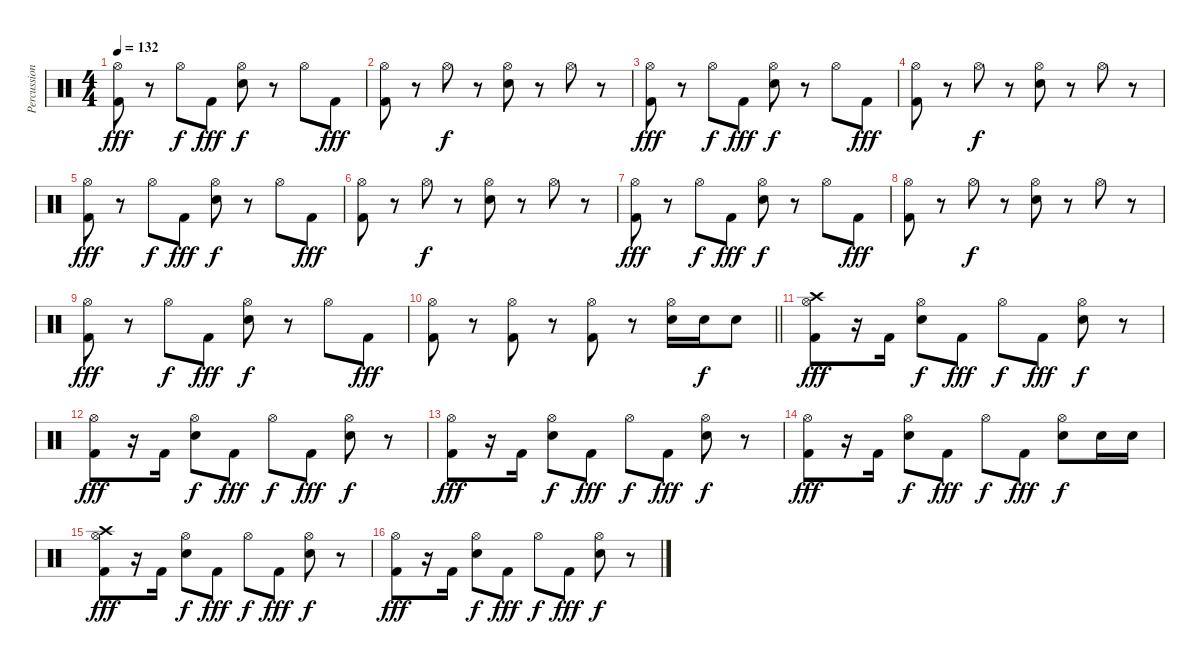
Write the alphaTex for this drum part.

\track ("Percussion" "Percussion") {instrument percussion}
\staff {score}
\articulation defaults
\ts (4 4)
\tempo 132
\clef neutral
\ks c
("Kick (hit) 2" "Hi-Hat (open)").8{dy fff} r.8 "Hi-Hat (open)".8{dy f} "Kick (hit) 2".8{dy fff} ("Electric Snare (hit)" "Hi-Hat (open)").8{dy f} r.8 "Hi-Hat (open)".8 "Kick (hit) 2".8{dy fff} |
("Kick (hit) 2" "Hi-Hat (open)").8 r.8 "Hi-Hat (open)".8{dy f} r.8 ("Electric Snare (hit)" "Hi-Hat (open)").8 r.8 "Hi-Hat (open)".8 r.8 |
("Kick (hit) 2" "Hi-Hat (open)").8{dy fff} r.8 "Hi-Hat (open)".8{dy f} "Kick (hit) 2".8{dy fff} ("Electric Snare (hit)" "Hi-Hat (open)").8{dy f} r.8 "Hi-Hat (open)".8 "Kick (hit) 2".8{dy fff} |
("Kick (hit) 2" "Hi-Hat (open)").8 r.8 "Hi-Hat (open)".8{dy f} r.8 ("Electric Snare (hit)" "Hi-Hat (open)").8 r.8 "Hi-Hat (open)".8 r.8 |
("Kick (hit) 2" "Hi-Hat (open)").8{dy fff} r.8 "Hi-Hat (open)".8{dy f} "Kick (hit) 2".8{dy fff} ("Electric Snare (hit)" "Hi-Hat (open)").8{dy f} r.8 "Hi-Hat (open)".8 "Kick (hit) 2".8{dy fff} |
("Kick (hit) 2" "Hi-Hat (open)").8 r.8 "Hi-Hat (open)".8{dy f} r.8 ("Electric Snare (hit)" "Hi-Hat (open)").8 r.8 "Hi-Hat (open)".8 r.8 |
("Kick (hit) 2" "Hi-Hat (open)").8{dy fff} r.8 "Hi-Hat (open)".8{dy f} "Kick (hit) 2".8{dy fff} ("Electric Snare (hit)" "Hi-Hat (open)").8{dy f} r.8 "Hi-Hat (open)".8 "Kick (hit) 2".8{dy fff} |
("Kick (hit) 2" "Hi-Hat (open)").8 r.8 "Hi-Hat (open)".8{dy f} r.8 ("Electric Snare (hit)" "Hi-Hat (open)").8 r.8 "Hi-Hat (open)".8 r.8 |
("Kick (hit) 2" "Hi-Hat (open)").8{dy fff} r.8 "Hi-Hat (open)".8{dy f} "Kick (hit) 2".8{dy fff} ("Electric Snare (hit)" "Hi-Hat (open)").8{dy f} r.8 "Hi-Hat (open)".8 "Kick (hit) 2".8{dy fff} |
\barLineRight lightlight
("Kick (hit) 2" "Hi-Hat (open)").8 r.8 ("Kick (hit) 2" "Hi-Hat (open)").8 r.8 ("Kick (hit) 2" "Hi-Hat (open)").8 r.8 ("Electric Snare (hit)" "Hi-Hat (open)").16 "Electric Snare (hit)".16{dy f} "Electric Snare (hit)".8 |
\section ("" "")
("Kick (hit) 2" "Hi-Hat (open)" "Crash high (hit)").8{dy fff} r.16 "Kick (hit) 2".16 ("Electric Snare (hit)" "Hi-Hat (open)").8{dy f} "Kick (hit) 2".8{dy fff} "Hi-Hat (open)".8{dy f} "Kick (hit) 2".8{dy fff} ("Electric Snare (hit)" "Hi-Hat (open)").8{dy f} r.8 |
("Kick (hit) 2" "Hi-Hat (open)").8{dy fff} r.16 "Kick (hit) 2".16 ("Electric Snare (hit)" "Hi-Hat (open)").8{dy f} "Kick (hit) 2".8{dy fff} "Hi-Hat (open)".8{dy f} "Kick (hit) 2".8{dy fff} ("Electric Snare (hit)" "Hi-Hat (open)").8{dy f} r.8 |
("Kick (hit) 2" "Hi-Hat (open)").8{dy fff} r.16 "Kick (hit) 2".16 ("Electric Snare (hit)" "Hi-Hat (open)").8{dy f} "Kick (hit) 2".8{dy fff} "Hi-Hat (open)".8{dy f} "Kick (hit) 2".8{dy fff} ("Electric Snare (hit)" "Hi-Hat (open)").8{dy f} r.8 |
("Kick (hit) 2" "Hi-Hat (open)").8{dy fff} r.16 "Kick (hit) 2".16 ("Electric Snare (hit)" "Hi-Hat (open)").8{dy f} "Kick (hit) 2".8{dy fff} "Hi-Hat (open)".8{dy f} "Kick (hit) 2".8{dy fff} ("Electric Snare (hit)" "Hi-Hat (open)").8{dy f} "Electric Snare (hit)".16 "Electric Snare (hit)".16 |
("Kick (hit) 2" "Hi-Hat (open)" "Crash high (hit)").8{dy fff} r.16 "Kick (hit) 2".16 ("Electric Snare (hit)" "Hi-Hat (open)").8{dy f} "Kick (hit) 2".8{dy fff} "Hi-Hat (open)".8{dy f} "Kick (hit) 2".8{dy fff} ("Electric Snare (hit)" "Hi-Hat (open)").8{dy f} r.8 |
("Kick (hit) 2" "Hi-Hat (open)").8{dy fff} r.16 "Kick (hit) 2".16 ("Electric Snare (hit)" "Hi-Hat (open)").8{dy f} "Kick (hit) 2".8{dy fff} "Hi-Hat (open)".8{dy f} "Kick (hit) 2".8{dy fff} ("Electric Snare (hit)" "Hi-Hat (open)").8{dy f} r.8
